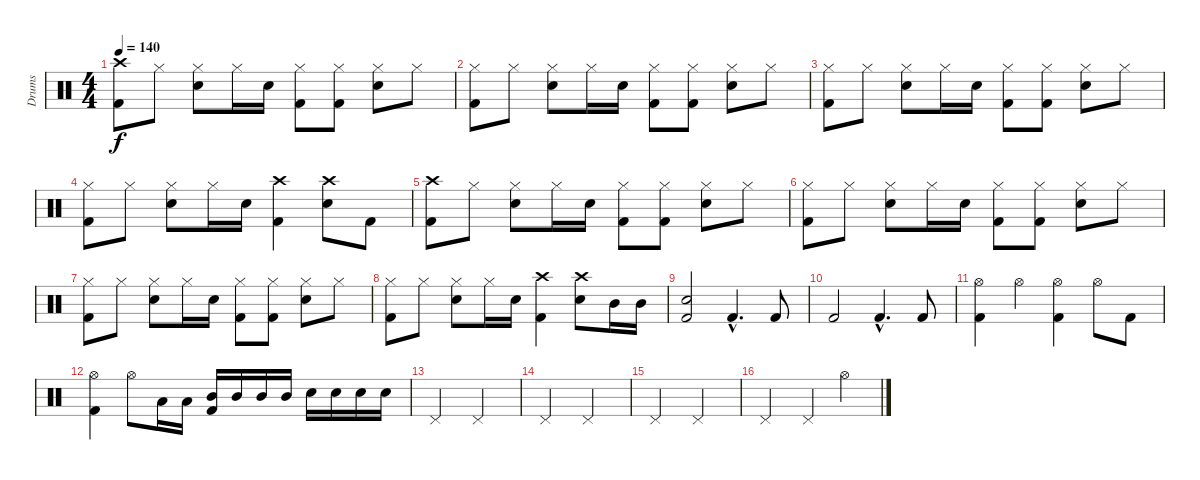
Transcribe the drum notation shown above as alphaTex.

\track ("Drums" "Drums") {instrument percussion}
\staff {score}
\articulation defaults
\ts (4 4)
\tempo 140
\clef neutral
\ks c
("Crash high (hit)" "Kick (hit) 2").8{dy f} "Hi-Hat (closed)".8 ("Hi-Hat (closed)" "Snare (hit) 2").8 "Hi-Hat (closed)".16 "Snare (hit) 2".16 ("Hi-Hat (closed)" "Kick (hit) 2").8 ("Hi-Hat (closed)" "Kick (hit) 2").8 ("Hi-Hat (closed)" "Snare (hit) 2").8 "Hi-Hat (closed)".8 |
("Hi-Hat (closed)" "Kick (hit) 2").8 "Hi-Hat (closed)".8 ("Hi-Hat (closed)" "Snare (hit) 2").8 "Hi-Hat (closed)".16 "Snare (hit) 2".16 ("Hi-Hat (closed)" "Kick (hit) 2").8 ("Hi-Hat (closed)" "Kick (hit) 2").8 ("Hi-Hat (closed)" "Snare (hit) 2").8 "Hi-Hat (closed)".8 |
("Hi-Hat (closed)" "Kick (hit) 2").8 "Hi-Hat (closed)".8 ("Hi-Hat (closed)" "Snare (hit) 2").8 "Hi-Hat (closed)".16 "Snare (hit) 2".16 ("Hi-Hat (closed)" "Kick (hit) 2").8 ("Hi-Hat (closed)" "Kick (hit) 2").8 ("Hi-Hat (closed)" "Snare (hit) 2").8 "Hi-Hat (closed)".8 |
("Hi-Hat (closed)" "Kick (hit) 2").8 "Hi-Hat (closed)".8 ("Hi-Hat (closed)" "Snare (hit) 2").8 "Hi-Hat (closed)".16 "Snare (hit) 2".16 ("Crash high (hit)" "Kick (hit) 2").4 ("Crash high (hit)" "Snare (hit) 2").8 "Kick (hit) 2".8 |
("Crash high (hit)" "Kick (hit) 2").8 "Hi-Hat (closed)".8 ("Hi-Hat (closed)" "Snare (hit) 2").8 "Hi-Hat (closed)".16 "Snare (hit) 2".16 ("Hi-Hat (closed)" "Kick (hit) 2").8 ("Hi-Hat (closed)" "Kick (hit) 2").8 ("Hi-Hat (closed)" "Snare (hit) 2").8 "Hi-Hat (closed)".8 |
("Hi-Hat (closed)" "Kick (hit) 2").8 "Hi-Hat (closed)".8 ("Hi-Hat (closed)" "Snare (hit) 2").8 "Hi-Hat (closed)".16 "Snare (hit) 2".16 ("Hi-Hat (closed)" "Kick (hit) 2").8 ("Hi-Hat (closed)" "Kick (hit) 2").8 ("Hi-Hat (closed)" "Snare (hit) 2").8 "Hi-Hat (closed)".8 |
("Hi-Hat (closed)" "Kick (hit) 2").8 "Hi-Hat (closed)".8 ("Hi-Hat (closed)" "Snare (hit) 2").8 "Hi-Hat (closed)".16 "Snare (hit) 2".16 ("Hi-Hat (closed)" "Kick (hit) 2").8 ("Hi-Hat (closed)" "Kick (hit) 2").8 ("Hi-Hat (closed)" "Snare (hit) 2").8 "Hi-Hat (closed)".8 |
("Hi-Hat (closed)" "Kick (hit) 2").8 "Hi-Hat (closed)".8 ("Hi-Hat (closed)" "Snare (hit) 2").8 "Hi-Hat (closed)".16 "Snare (hit) 2".16 ("Crash high (hit)" "Kick (hit) 2").4 ("Crash high (hit)" "Snare (hit) 2").8 "Mid Tom (hit)".16 "Mid Tom (hit)".16 |
("Snare (hit) 2" "Kick (hit) 2").2 "Kick (hit) 2"{hac}.4{d} "Kick (hit) 2".8 |
"Kick (hit) 2".2 "Kick (hit) 2"{hac}.4{d} "Kick (hit) 2".8 |
("Hi-Hat (open)" "Kick (hit) 2").4 "Hi-Hat (open)".4 ("Hi-Hat (open)" "Kick (hit) 2").4 "Hi-Hat (open)".8 "Kick (hit) 2".8 |
("Hi-Hat (open)" "Kick (hit) 2").4 "Hi-Hat (open)".8 "Low Tom (hit)".16 "Low Tom (hit)".16 ("Mid Tom (hit)" "Kick (hit) 2").16 "Mid Tom (hit)".16 "Mid Tom (hit)".16 "Mid Tom (hit)".16 "Snare (hit) 2".16 "Snare (hit) 2".16 "Snare (hit) 2".16 "Snare (hit) 2".16 |
"Pedal Hi-Hat (hit)".2 "Pedal Hi-Hat (hit)".2 |
"Pedal Hi-Hat (hit)".2 "Pedal Hi-Hat (hit)".2 |
"Pedal Hi-Hat (hit)".2 "Pedal Hi-Hat (hit)".2 |
"Pedal Hi-Hat (hit)".2 "Pedal Hi-Hat (hit)".4 "Hi-Hat (open)".4
